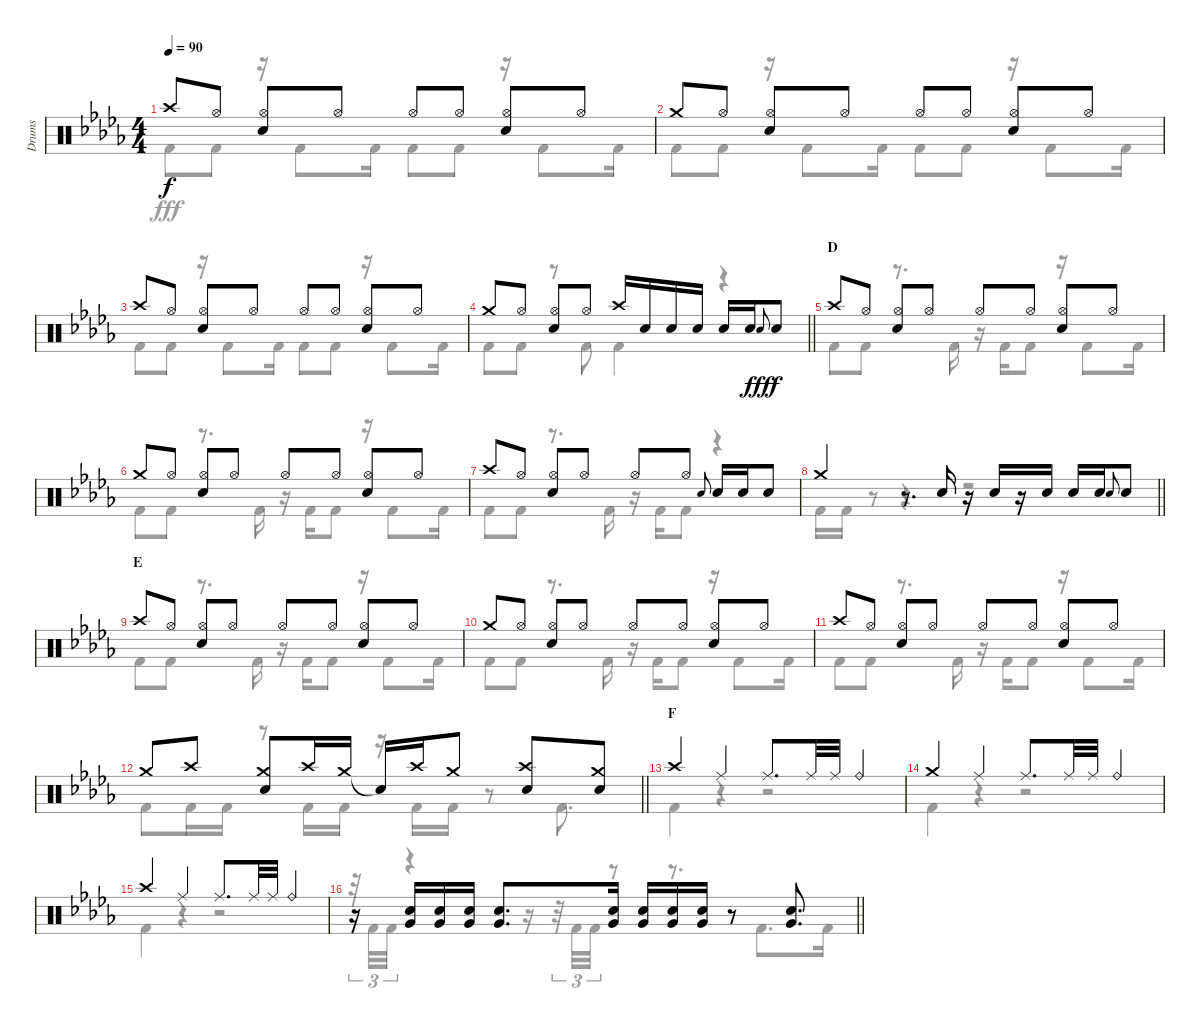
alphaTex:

\track ("Drums" "Drums") {instrument percussion}
\staff {score}
\articulation defaults
\voice
\ts (4 4)
\tempo 90
\clef neutral
\ks db "Crash high (hit)".8{dy f} "Hi-Hat (open)".8
("Hi-Hat (open)" "Snare (hit) 2").8 "Hi-Hat (open)".8 "Hi-Hat (open)".8 "Hi-Hat (open)".8 ("Hi-Hat (open)" "Snare (hit) 2").8 "Hi-Hat (open)".8 |
"Crash medium (hit)".8 "Hi-Hat (open)".8 ("Hi-Hat (open)" "Snare (hit) 2").8 "Hi-Hat (open)".8 "Hi-Hat (open)".8 "Hi-Hat (open)".8 ("Hi-Hat (open)" "Snare (hit) 2").8 "Hi-Hat (open)".8 |
"Crash high (hit)".8 "Hi-Hat (open)".8 ("Hi-Hat (open)" "Snare (hit) 2").8 "Hi-Hat (open)".8 "Hi-Hat (open)".8 "Hi-Hat (open)".8 ("Hi-Hat (open)" "Snare (hit) 2").8 "Hi-Hat (open)".8 |
\barLineRight lightlight "Crash medium (hit)".8 "Hi-Hat (open)".8
("Hi-Hat (open)" "Snare (hit) 2").8 "Hi-Hat (open)".8 "Crash high (hit)".16 "Snare (hit) 2".16 "Snare (hit) 2".16 "Snare (hit) 2".16 "Snare (hit) 2".16 "Snare (hit) 2".16 "Snare (hit) 2".8{gr onbeat dy fff} "Snare (hit) 2".8{dy f} |
\section ("" "D")
"Crash high (hit)".8 "Hi-Hat (open)".8 ("Hi-Hat (open)" "Snare (hit) 2").8 "Hi-Hat (open)".8 "Hi-Hat (open)".8 "Hi-Hat (open)".8 ("Hi-Hat (open)" "Snare (hit) 2").8 "Hi-Hat (open)".8 |
"Crash medium (hit)".8 "Hi-Hat (open)".8 ("Hi-Hat (open)" "Snare (hit) 2").8 "Hi-Hat (open)".8 "Hi-Hat (open)".8 "Hi-Hat (open)".8 ("Hi-Hat (open)" "Snare (hit) 2").8 "Hi-Hat (open)".8 |
"Crash high (hit)".8 "Hi-Hat (open)".8 ("Hi-Hat (open)" "Snare (hit) 2").8 "Hi-Hat (open)".8 "Hi-Hat (open)".8 "Hi-Hat (open)".8 "Snare (hit) 2".8{gr onbeat} "Snare (hit) 2".16 "Snare (hit) 2".16 "Snare (hit) 2".8 |
\barLineRight lightlight "Crash medium (hit)".4
r.8{d} "Snare (hit) 2".16 r.16 "Snare (hit) 2".16 r.16 "Snare (hit) 2".16 "Snare (hit) 2".16 "Snare (hit) 2".16 "Snare (hit) 2".8{gr onbeat} "Snare (hit) 2".8 |
\section ("" "E")
"Crash high (hit)".8 "Hi-Hat (open)".8 ("Hi-Hat (open)" "Snare (hit) 2").8 "Hi-Hat (open)".8 "Hi-Hat (open)".8 "Hi-Hat (open)".8 ("Hi-Hat (open)" "Snare (hit) 2").8 "Hi-Hat (open)".8 |
"Crash medium (hit)".8 "Hi-Hat (open)".8 ("Hi-Hat (open)" "Snare (hit) 2").8 "Hi-Hat (open)".8 "Hi-Hat (open)".8 "Hi-Hat (open)".8 ("Hi-Hat (open)" "Snare (hit) 2").8 "Hi-Hat (open)".8 |
"Crash high (hit)".8 "Hi-Hat (open)".8 ("Hi-Hat (open)" "Snare (hit) 2").8 "Hi-Hat (open)".8 "Hi-Hat (open)".8 "Hi-Hat (open)".8 ("Hi-Hat (open)" "Snare (hit) 2").8 "Hi-Hat (open)".8 |
\barLineRight lightlight "Crash medium (hit)".8 "Crash high (hit)".8
("Crash medium (hit)" "Snare (hit) 2").8 "Crash high (hit)".16 "Crash medium (hit)".16 "Snare (hit)"{t}.16 "Crash high (hit)".16 "Crash medium (hit)".8 ("Crash high (hit)" "Snare (hit) 2").8 ("Crash medium (hit)" "Snare (hit) 2").8 |
\section ("" "F")
"Crash high (hit)".4 "Ride (middle)".4 "Ride (middle)".8{d} "Ride (middle)".32 "Ride (middle)".32 "Ride (bell)".4 |
"Crash medium (hit)".4 "Ride (middle)".4 "Ride (middle)".8{d} "Ride (middle)".32 "Ride (middle)".32 "Ride (bell)".4 |
"Crash high (hit)".4 "Ride (middle)".4 "Ride (middle)".8{d} "Ride (middle)".32 "Ride (middle)".32 "Ride (bell)".4 |
\barLineRight lightlight
r.16 ("Snare (hit) 2" "Very Low Tom (hit)").16 ("Snare (hit) 2" "Very Low Tom (hit)").16 ("Snare (hit) 2" "Very Low Tom (hit)").16 ("Snare (hit) 2" "Very Low Tom (hit)").8{d} ("Snare (hit) 2" "Very Low Tom (hit)").16 ("Snare (hit) 2" "Very Low Tom (hit)").16 ("Snare (hit) 2" "Very Low Tom (hit)").16 ("Snare (hit) 2" "Very Low Tom (hit)").16 r.8 ("Snare (hit) 2" "Very Low Tom (hit)").8{d}
\voice
\clef neutral
\ottava regular
\simile none
\ks db "Kick (hit) 2".8{dy fff} "Kick (hit) 2".8
r.16 "Kick (hit) 2".8 "Kick (hit) 2".16 "Kick (hit) 2".8 "Kick (hit) 2".8 r.16 "Kick (hit) 2".8 "Kick (hit) 2".16 |
"Kick (hit) 2".8 "Kick (hit) 2".8 r.16 "Kick (hit) 2".8 "Kick (hit) 2".16 "Kick (hit) 2".8 "Kick (hit) 2".8 r.16 "Kick (hit) 2".8 "Kick (hit) 2".16 |
"Kick (hit) 2".8 "Kick (hit) 2".8 r.16 "Kick (hit) 2".8 "Kick (hit) 2".16 "Kick (hit) 2".8 "Kick (hit) 2".8 r.16 "Kick (hit) 2".8 "Kick (hit) 2".16 |
\barLineRight lightlight "Kick (hit) 2".8 "Kick (hit) 2".8
r.8 "Kick (hit) 2".8 "Kick (hit) 2".4 r.4 |
"Kick (hit) 2".8 "Kick (hit) 2".8 r.8{d} "Kick (hit) 2".16 r.16 "Kick (hit) 2".16 "Kick (hit) 2".8 r.16 "Kick (hit) 2".8 "Kick (hit) 2".16 |
"Kick (hit) 2".8 "Kick (hit) 2".8 r.8{d} "Kick (hit) 2".16 r.16 "Kick (hit) 2".16 "Kick (hit) 2".8 r.16 "Kick (hit) 2".8 "Kick (hit) 2".16 |
"Kick (hit) 2".8 "Kick (hit) 2".8 r.8{d} "Kick (hit) 2".16 r.16 "Kick (hit) 2".16 "Kick (hit) 2".8 r.4 |
\barLineRight lightlight "Kick (hit) 2".16 "Kick (hit) 2".16
r.8 r.4 r.2 |
"Kick (hit) 2".8 "Kick (hit) 2".8 r.8{d} "Kick (hit) 2".16 r.16 "Kick (hit) 2".16 "Kick (hit) 2".8 r.16 "Kick (hit) 2".8 "Kick (hit) 2".16 |
"Kick (hit) 2".8 "Kick (hit) 2".8 r.8{d} "Kick (hit) 2".16 r.16 "Kick (hit) 2".16 "Kick (hit) 2".8 r.16 "Kick (hit) 2".8 "Kick (hit) 2".16 |
"Kick (hit) 2".8 "Kick (hit) 2".8 r.8{d} "Kick (hit) 2".16 r.16 "Kick (hit) 2".16 "Kick (hit) 2".8 r.16 "Kick (hit) 2".8 "Kick (hit) 2".16 |
\barLineRight lightlight "Kick (hit) 2".8 "Kick (hit) 2".16 "Kick (hit) 2".16
r.8 "Kick (hit) 2".16 "Kick (hit) 2".16 r.16 "Kick (hit) 2".16 "Kick (hit) 2".16 r.8 "Kick (hit) 2".8{d} |
"Kick (hit) 2".4 r.4 r.2 |
"Kick (hit) 2".4 r.4 r.2 |
"Kick (hit) 2".4 r.4 r.2 |
\barLineRight lightlight
r.32{tu (3 2)} "Kick (hit) 2".32{tu (3 2)} "Kick (hit) 2".32{tu (3 2)} r.4 r.16 r.32{tu (3 2)} "Kick (hit) 2".32{tu (3 2)} "Kick (hit) 2".32{tu (3 2)} r.8 r.8{d} "Kick (hit) 2".8{d} "Kick (hit) 2".16
